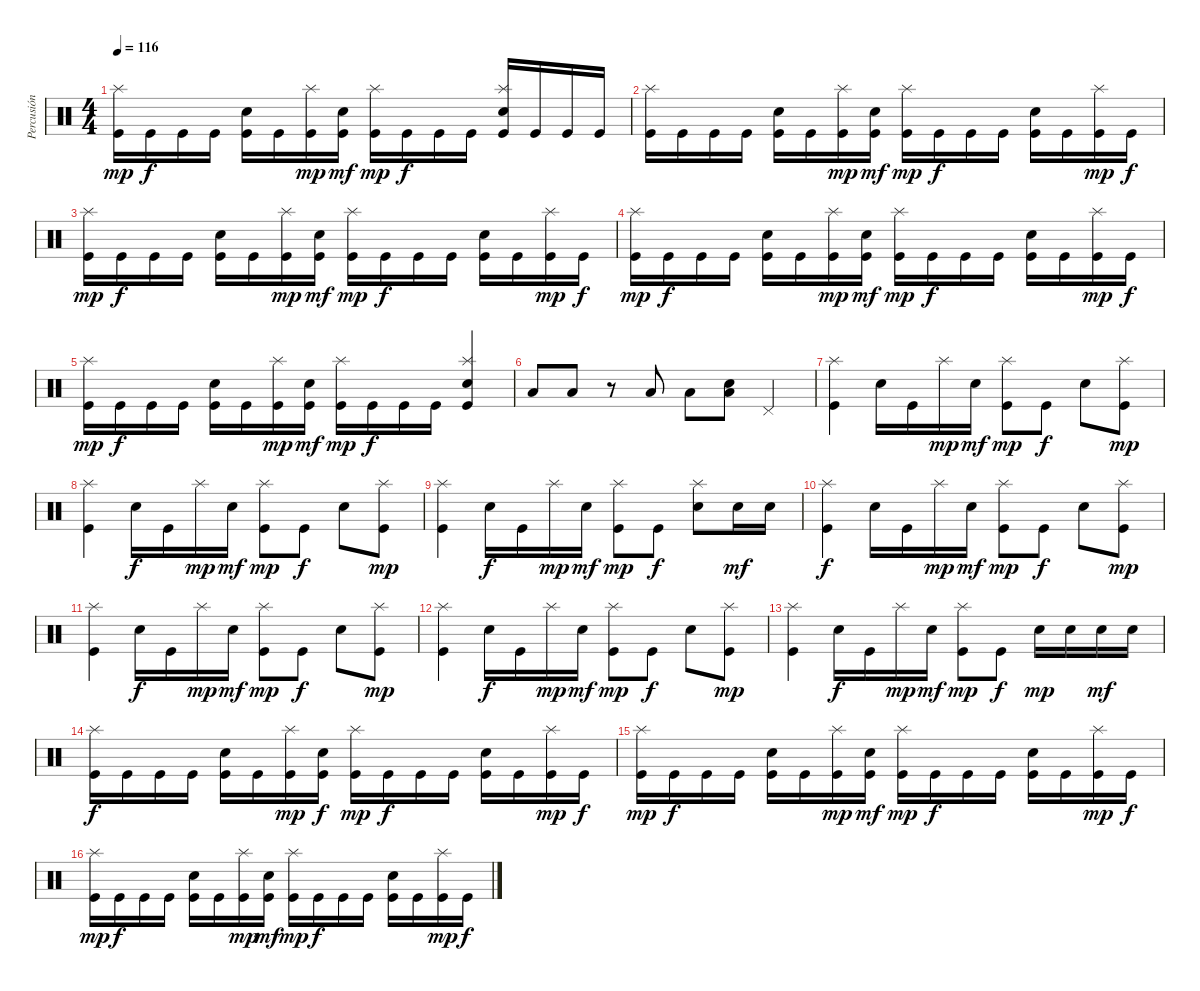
\track ("Percusión" "Percusión") {instrument percussion}
\staff {score}
\articulation defaults
\ts (4 4)
\tempo 116
\clef neutral
\ks c
("Kick (hit)" "Splash (hit)").16{dy mp} "Kick (hit)".16{dy f} "Kick (hit)".16 "Kick (hit)".16 ("Kick (hit)" "Snare (hit) 2").16 "Kick (hit)".16 ("Kick (hit)" "Splash (hit)").16{dy mp} ("Kick (hit)" "Snare (hit) 2").16{dy mf} ("Kick (hit)" "Splash (hit)").16{dy mp} "Kick (hit)".16{dy f} "Kick (hit)".16 "Kick (hit)".16 ("Kick (hit)" "Snare (hit) 2" "Splash (hit)").16 "Kick (hit)".16 "Kick (hit)".16 "Kick (hit)".16 |
("Kick (hit)" "Splash (hit)").16 "Kick (hit)".16 "Kick (hit)".16 "Kick (hit)".16 ("Kick (hit)" "Snare (hit) 2").16 "Kick (hit)".16 ("Kick (hit)" "Splash (hit)").16{dy mp} ("Kick (hit)" "Snare (hit) 2").16{dy mf} ("Kick (hit)" "Splash (hit)").16{dy mp} "Kick (hit)".16{dy f} "Kick (hit)".16 "Kick (hit)".16 ("Kick (hit)" "Snare (hit) 2").16 "Kick (hit)".16 ("Kick (hit)" "Splash (hit)").16{dy mp} "Kick (hit)".16{dy f} |
("Kick (hit)" "Splash (hit)").16{dy mp} "Kick (hit)".16{dy f} "Kick (hit)".16 "Kick (hit)".16 ("Kick (hit)" "Snare (hit) 2").16 "Kick (hit)".16 ("Kick (hit)" "Splash (hit)").16{dy mp} ("Kick (hit)" "Snare (hit) 2").16{dy mf} ("Kick (hit)" "Splash (hit)").16{dy mp} "Kick (hit)".16{dy f} "Kick (hit)".16 "Kick (hit)".16 ("Kick (hit)" "Snare (hit) 2").16 "Kick (hit)".16 ("Kick (hit)" "Splash (hit)").16{dy mp} "Kick (hit)".16{dy f} |
("Kick (hit)" "Splash (hit)").16{dy mp} "Kick (hit)".16{dy f} "Kick (hit)".16 "Kick (hit)".16 ("Kick (hit)" "Snare (hit) 2").16 "Kick (hit)".16 ("Kick (hit)" "Splash (hit)").16{dy mp} ("Kick (hit)" "Snare (hit) 2").16{dy mf} ("Kick (hit)" "Splash (hit)").16{dy mp} "Kick (hit)".16{dy f} "Kick (hit)".16 "Kick (hit)".16 ("Kick (hit)" "Snare (hit) 2").16 "Kick (hit)".16 ("Kick (hit)" "Splash (hit)").16{dy mp} "Kick (hit)".16{dy f} |
("Kick (hit)" "Splash (hit)").16{dy mp} "Kick (hit)".16{dy f} "Kick (hit)".16 "Kick (hit)".16 ("Kick (hit)" "Snare (hit) 2").16 "Kick (hit)".16 ("Kick (hit)" "Splash (hit)").16{dy mp} ("Kick (hit)" "Snare (hit) 2").16{dy mf} ("Kick (hit)" "Splash (hit)").16{dy mp} "Kick (hit)".16{dy f} "Kick (hit)".16 "Kick (hit)".16 ("Kick (hit)" "Snare (hit) 2" "Splash (hit)").4 |
"Low Tom (hit)".8 "Low Tom (hit)".8 r.8 "Low Tom (hit)".8 "Low Tom (hit)".8 ("Low Tom (hit)" "Snare (hit) 2").8 "Pedal Hi-Hat (hit)".4 |
("Kick (hit)" "Splash (hit)").4 "Snare (hit) 2".16 "Kick (hit)".16 "Splash (hit)".16{dy mp} "Snare (hit) 2".16{dy mf} ("Kick (hit)" "Splash (hit)").8{dy mp} "Kick (hit)".8{dy f} "Snare (hit) 2".8 ("Kick (hit)" "Splash (hit)").8{dy mp} |
("Kick (hit)" "Splash (hit)").4 "Snare (hit) 2".16{dy f} "Kick (hit)".16 "Splash (hit)".16{dy mp} "Snare (hit) 2".16{dy mf} ("Kick (hit)" "Splash (hit)").8{dy mp} "Kick (hit)".8{dy f} "Snare (hit) 2".8 ("Kick (hit)" "Splash (hit)").8{dy mp} |
("Kick (hit)" "Splash (hit)").4 "Snare (hit) 2".16{dy f} "Kick (hit)".16 "Splash (hit)".16{dy mp} "Snare (hit) 2".16{dy mf} ("Kick (hit)" "Splash (hit)").8{dy mp} "Kick (hit)".8{dy f} ("Snare (hit) 2" "Splash (hit)").8 "Snare (hit) 2".16{dy mf} "Snare (hit) 2".16 |
("Kick (hit)" "Splash (hit)").4{dy f} "Snare (hit) 2".16 "Kick (hit)".16 "Splash (hit)".16{dy mp} "Snare (hit) 2".16{dy mf} ("Kick (hit)" "Splash (hit)").8{dy mp} "Kick (hit)".8{dy f} "Snare (hit) 2".8 ("Kick (hit)" "Splash (hit)").8{dy mp} |
("Kick (hit)" "Splash (hit)").4 "Snare (hit) 2".16{dy f} "Kick (hit)".16 "Splash (hit)".16{dy mp} "Snare (hit) 2".16{dy mf} ("Kick (hit)" "Splash (hit)").8{dy mp} "Kick (hit)".8{dy f} "Snare (hit) 2".8 ("Kick (hit)" "Splash (hit)").8{dy mp} |
("Kick (hit)" "Splash (hit)").4 "Snare (hit) 2".16{dy f} "Kick (hit)".16 "Splash (hit)".16{dy mp} "Snare (hit) 2".16{dy mf} ("Kick (hit)" "Splash (hit)").8{dy mp} "Kick (hit)".8{dy f} "Snare (hit) 2".8 ("Kick (hit)" "Splash (hit)").8{dy mp} |
("Kick (hit)" "Splash (hit)").4 "Snare (hit) 2".16{dy f} "Kick (hit)".16 "Splash (hit)".16{dy mp} "Snare (hit) 2".16{dy mf} ("Kick (hit)" "Splash (hit)").8{dy mp} "Kick (hit)".8{dy f} "Snare (hit) 2".16{dy mp} "Snare (hit) 2".16 "Snare (hit) 2".16{dy mf} "Snare (hit) 2".16 |
("Kick (hit)" "Splash (hit)").16{dy f} "Kick (hit)".16 "Kick (hit)".16 "Kick (hit)".16 ("Kick (hit)" "Snare (hit) 2").16 "Kick (hit)".16 ("Kick (hit)" "Splash (hit)").16{dy mp} ("Kick (hit)" "Snare (hit) 2").16{dy f} ("Kick (hit)" "Splash (hit)").16{dy mp} "Kick (hit)".16{dy f} "Kick (hit)".16 "Kick (hit)".16 ("Kick (hit)" "Snare (hit) 2").16 "Kick (hit)".16 ("Kick (hit)" "Splash (hit)").16{dy mp} "Kick (hit)".16{dy f} |
("Kick (hit)" "Splash (hit)").16{dy mp} "Kick (hit)".16{dy f} "Kick (hit)".16 "Kick (hit)".16 ("Kick (hit)" "Snare (hit) 2").16 "Kick (hit)".16 ("Kick (hit)" "Splash (hit)").16{dy mp} ("Kick (hit)" "Snare (hit) 2").16{dy mf} ("Kick (hit)" "Splash (hit)").16{dy mp} "Kick (hit)".16{dy f} "Kick (hit)".16 "Kick (hit)".16 ("Kick (hit)" "Snare (hit) 2").16 "Kick (hit)".16 ("Kick (hit)" "Splash (hit)").16{dy mp} "Kick (hit)".16{dy f} |
("Kick (hit)" "Splash (hit)").16{dy mp} "Kick (hit)".16{dy f} "Kick (hit)".16 "Kick (hit)".16 ("Kick (hit)" "Snare (hit) 2").16 "Kick (hit)".16 ("Kick (hit)" "Splash (hit)").16{dy mp} ("Kick (hit)" "Snare (hit) 2").16{dy mf} ("Kick (hit)" "Splash (hit)").16{dy mp} "Kick (hit)".16{dy f} "Kick (hit)".16 "Kick (hit)".16 ("Kick (hit)" "Snare (hit) 2").16 "Kick (hit)".16 ("Kick (hit)" "Splash (hit)").16{dy mp} "Kick (hit)".16{dy f}
